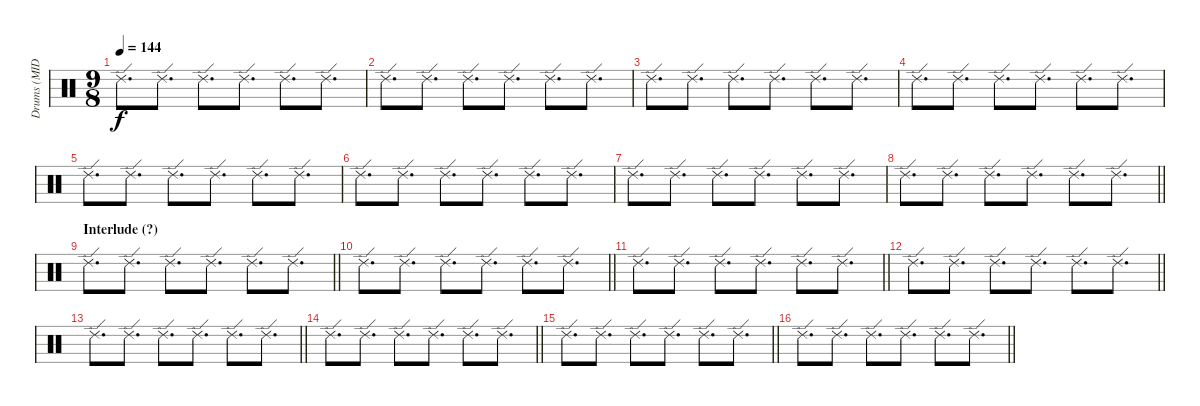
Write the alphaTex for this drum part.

\track ("Drums (MIDI!)" "Drums (MID") {instrument percussion}
\staff {score}
\articulation defaults
\ts (9 8)
\tempo 144
\clef neutral
\ks c "Ride (edge) 2".8{d dy f} "Ride (edge) 2".8{d} "Ride (edge) 2".8{d} "Ride (edge) 2".8{d} "Ride (edge) 2".8{d} "Ride (edge) 2".8{d}
|
"Ride (edge) 2".8{d} "Ride (edge) 2".8{d} "Ride (edge) 2".8{d} "Ride (edge) 2".8{d} "Ride (edge) 2".8{d} "Ride (edge) 2".8{d} |
"Ride (edge) 2".8{d} "Ride (edge) 2".8{d} "Ride (edge) 2".8{d} "Ride (edge) 2".8{d} "Ride (edge) 2".8{d} "Ride (edge) 2".8{d} |
"Ride (edge) 2".8{d} "Ride (edge) 2".8{d} "Ride (edge) 2".8{d} "Ride (edge) 2".8{d} "Ride (edge) 2".8{d} "Ride (edge) 2".8{d} |
"Ride (edge) 2".8{d} "Ride (edge) 2".8{d} "Ride (edge) 2".8{d} "Ride (edge) 2".8{d} "Ride (edge) 2".8{d} "Ride (edge) 2".8{d} |
"Ride (edge) 2".8{d} "Ride (edge) 2".8{d} "Ride (edge) 2".8{d} "Ride (edge) 2".8{d} "Ride (edge) 2".8{d} "Ride (edge) 2".8{d} |
"Ride (edge) 2".8{d} "Ride (edge) 2".8{d} "Ride (edge) 2".8{d} "Ride (edge) 2".8{d} "Ride (edge) 2".8{d} "Ride (edge) 2".8{d} |
\barLineRight lightlight "Ride (edge) 2".8{d} "Ride (edge) 2".8{d} "Ride (edge) 2".8{d} "Ride (edge) 2".8{d} "Ride (edge) 2".8{d} "Ride (edge) 2".8{d}
|
\section ("" "Interlude (?)")
\barLineRight lightlight "Ride (edge) 2".8{d} "Ride (edge) 2".8{d} "Ride (edge) 2".8{d} "Ride (edge) 2".8{d} "Ride (edge) 2".8{d} "Ride (edge) 2".8{d}
|
\barLineRight lightlight "Ride (edge) 2".8{d} "Ride (edge) 2".8{d} "Ride (edge) 2".8{d} "Ride (edge) 2".8{d} "Ride (edge) 2".8{d} "Ride (edge) 2".8{d}
|
\barLineRight lightlight "Ride (edge) 2".8{d} "Ride (edge) 2".8{d} "Ride (edge) 2".8{d} "Ride (edge) 2".8{d} "Ride (edge) 2".8{d} "Ride (edge) 2".8{d}
|
\barLineRight lightlight "Ride (edge) 2".8{d} "Ride (edge) 2".8{d} "Ride (edge) 2".8{d} "Ride (edge) 2".8{d} "Ride (edge) 2".8{d} "Ride (edge) 2".8{d}
|
\barLineRight lightlight "Ride (edge) 2".8{d} "Ride (edge) 2".8{d} "Ride (edge) 2".8{d} "Ride (edge) 2".8{d} "Ride (edge) 2".8{d} "Ride (edge) 2".8{d}
|
\barLineRight lightlight "Ride (edge) 2".8{d} "Ride (edge) 2".8{d} "Ride (edge) 2".8{d} "Ride (edge) 2".8{d} "Ride (edge) 2".8{d} "Ride (edge) 2".8{d}
|
\barLineRight lightlight "Ride (edge) 2".8{d} "Ride (edge) 2".8{d} "Ride (edge) 2".8{d} "Ride (edge) 2".8{d} "Ride (edge) 2".8{d} "Ride (edge) 2".8{d}
|
\barLineRight lightlight "Ride (edge) 2".8{d} "Ride (edge) 2".8{d} "Ride (edge) 2".8{d} "Ride (edge) 2".8{d} "Ride (edge) 2".8{d} "Ride (edge) 2".8{d}
